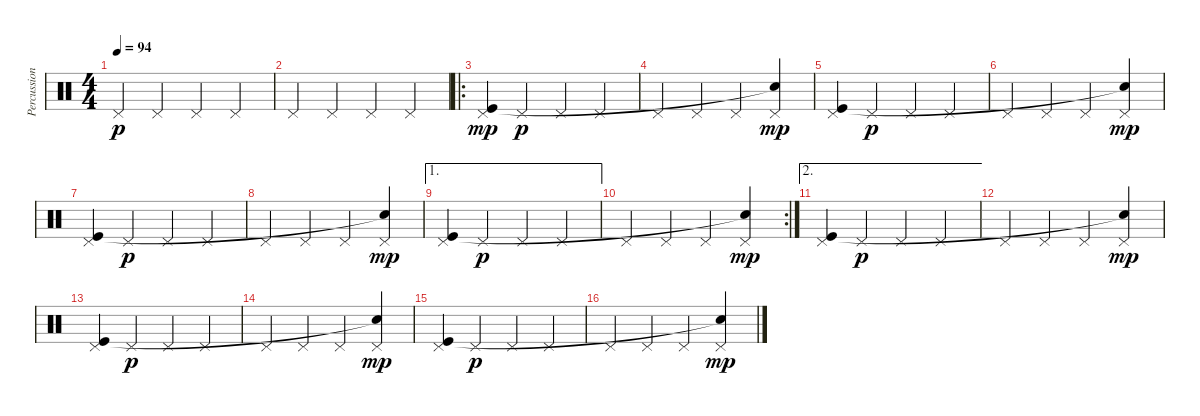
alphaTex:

\track ("Percussions" "Percussion") {instrument percussion}
\staff {score}
\articulation defaults
\ts (4 4)
\tempo 94
\clef neutral
\ks c "Pedal Hi-Hat (hit)".4{dy p} "Pedal Hi-Hat (hit)".4 "Pedal Hi-Hat (hit)".4 "Pedal Hi-Hat (hit)".4
|
"Pedal Hi-Hat (hit)".4 "Pedal Hi-Hat (hit)".4 "Pedal Hi-Hat (hit)".4 "Pedal Hi-Hat (hit)".4 |
\ro
("Pedal Hi-Hat (hit)" "Kick (hit)").4{dy mp} "Pedal Hi-Hat (hit)".4{dy p} "Pedal Hi-Hat (hit)".4 "Pedal Hi-Hat (hit)".4 |
"Pedal Hi-Hat (hit)".4 "Pedal Hi-Hat (hit)".4 "Pedal Hi-Hat (hit)".4 ("Pedal Hi-Hat (hit)" "Snare (hit)"{t}).4{dy mp} |
("Pedal Hi-Hat (hit)" "Kick (hit)").4 "Pedal Hi-Hat (hit)".4{dy p} "Pedal Hi-Hat (hit)".4 "Pedal Hi-Hat (hit)".4 |
"Pedal Hi-Hat (hit)".4 "Pedal Hi-Hat (hit)".4 "Pedal Hi-Hat (hit)".4 ("Pedal Hi-Hat (hit)" "Snare (hit)"{t}).4{dy mp} |
("Pedal Hi-Hat (hit)" "Kick (hit)").4 "Pedal Hi-Hat (hit)".4{dy p} "Pedal Hi-Hat (hit)".4 "Pedal Hi-Hat (hit)".4 |
"Pedal Hi-Hat (hit)".4 "Pedal Hi-Hat (hit)".4 "Pedal Hi-Hat (hit)".4 ("Pedal Hi-Hat (hit)" "Snare (hit)"{t}).4{dy mp} |
\ae 1
("Pedal Hi-Hat (hit)" "Kick (hit)").4 "Pedal Hi-Hat (hit)".4{dy p} "Pedal Hi-Hat (hit)".4 "Pedal Hi-Hat (hit)".4 |
\rc 2 "Pedal Hi-Hat (hit)".4 "Pedal Hi-Hat (hit)".4 "Pedal Hi-Hat (hit)".4
("Pedal Hi-Hat (hit)" "Snare (hit)"{t}).4{dy mp} |
\ae 2
("Pedal Hi-Hat (hit)" "Kick (hit)").4 "Pedal Hi-Hat (hit)".4{dy p} "Pedal Hi-Hat (hit)".4 "Pedal Hi-Hat (hit)".4 |
"Pedal Hi-Hat (hit)".4 "Pedal Hi-Hat (hit)".4 "Pedal Hi-Hat (hit)".4 ("Pedal Hi-Hat (hit)" "Snare (hit)"{t}).4{dy mp} |
("Pedal Hi-Hat (hit)" "Kick (hit)").4 "Pedal Hi-Hat (hit)".4{dy p} "Pedal Hi-Hat (hit)".4 "Pedal Hi-Hat (hit)".4 |
"Pedal Hi-Hat (hit)".4 "Pedal Hi-Hat (hit)".4 "Pedal Hi-Hat (hit)".4 ("Pedal Hi-Hat (hit)" "Snare (hit)"{t}).4{dy mp} |
("Pedal Hi-Hat (hit)" "Kick (hit)").4 "Pedal Hi-Hat (hit)".4{dy p} "Pedal Hi-Hat (hit)".4 "Pedal Hi-Hat (hit)".4 |
"Pedal Hi-Hat (hit)".4 "Pedal Hi-Hat (hit)".4 "Pedal Hi-Hat (hit)".4 ("Pedal Hi-Hat (hit)" "Snare (hit)"{t}).4{dy mp}
